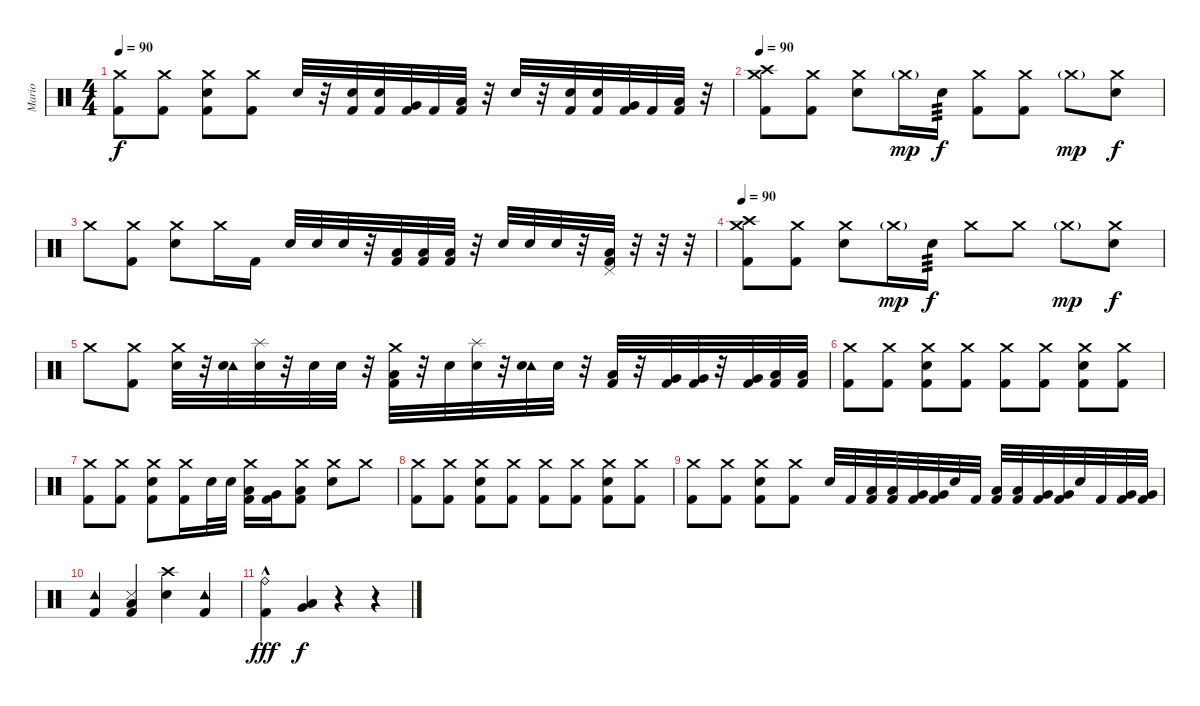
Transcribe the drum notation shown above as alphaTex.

\track ("Mario" "Mario") {instrument percussion}
\staff {score}
\articulation defaults
\ts (4 4)
\tempo 90
\clef neutral
\ks c
("Crash medium (hit)" "Kick (hit) 2").8{dy f} ("Crash medium (hit)" "Kick (hit) 2").8 ("Crash medium (hit)" "Electric Snare (hit)" "Kick (hit) 2").8 ("Crash medium (hit)" "Kick (hit) 2").8 "Electric Snare (hit)".32 r.32 ("Electric Snare (hit)" "Kick (hit) 2").32 ("Electric Snare (hit)" "Kick (hit) 2").32 ("Very Low Tom (hit)" "Kick (hit) 2").32 "Kick (hit) 2".32 ("Low Floor Tom (hit)" "Kick (hit) 2").32 r.32 "Electric Snare (hit)".32 r.32 ("Electric Snare (hit)" "Kick (hit) 2").32 ("Electric Snare (hit)" "Kick (hit) 2").32 ("Very Low Tom (hit)" "Kick (hit) 2").32 "Kick (hit) 2".32 ("Low Floor Tom (hit)" "Kick (hit) 2").32 r.32 |
\tempo 90
("Crash medium (hit)" "Crash high (hit)" "Kick (hit) 2").8 ("Crash medium (hit)" "Kick (hit) 2").8 ("Crash medium (hit)" "Electric Snare (hit)").8 "Crash medium (hit)"{g}.16{dy mp} "Electric Snare (hit)".16{tp 3 dy f} ("Crash medium (hit)" "Kick (hit) 2").8 ("Crash medium (hit)" "Kick (hit) 2").8 "Crash medium (hit)"{g}.8{dy mp} ("Crash medium (hit)" "Electric Snare (hit)").8{dy f} |
"Crash medium (hit)".8 ("Crash medium (hit)" "Kick (hit) 2").8 ("Crash medium (hit)" "Electric Snare (hit)").8 "Crash medium (hit)".16 "Kick (hit) 2".16 "Electric Snare (hit)".32 "Electric Snare (hit)".32 "Electric Snare (hit)".32 r.32 ("Low Floor Tom (hit)" "Kick (hit) 2").32 ("Low Floor Tom (hit)" "Kick (hit) 2").32 ("Low Floor Tom (hit)" "Kick (hit) 2").32 r.32 "Electric Snare (hit)".32 "Electric Snare (hit)".32 "Electric Snare (hit)".32 r.32 ("Pedal Hi-Hat (hit)" "Low Floor Tom (hit)" "Kick (hit) 2").32 r.32 r.32 r.32 |
\tempo 90
("Crash medium (hit)" "Crash high (hit)" "Kick (hit) 2").8 ("Crash medium (hit)" "Kick (hit) 2").8 ("Crash medium (hit)" "Electric Snare (hit)").8 "Crash medium (hit)"{g}.16{dy mp} "Electric Snare (hit)".16{tp 3 dy f} "Crash medium (hit)".8 "Crash medium (hit)".8 "Crash medium (hit)"{g}.8{dy mp} ("Crash medium (hit)" "Electric Snare (hit)").8{dy f} |
"Crash medium (hit)".8 ("Crash medium (hit)" "Kick (hit) 2").8 ("Crash medium (hit)" "Electric Snare (hit)").32 r.32 ("Tambourine (hit)" "Electric Snare (hit)").32 ("Splash (hit)" "Electric Snare (hit)").32 r.32 "Electric Snare (hit)".32 "Electric Snare (hit)".32 r.32 ("Crash medium (hit)" "Low Floor Tom (hit)" "Kick (hit) 2").32 r.32 "Electric Snare (hit)".32 ("Splash (hit)" "Electric Snare (hit)").32 r.32 ("Tambourine (hit)" "Electric Snare (hit)").32 "Electric Snare (hit)".32 r.32 ("Low Tom (hit)" "Kick (hit) 2").32 r.32 ("Very Low Tom (hit)" "Kick (hit) 2").32 ("Very Low Tom (hit)" "Kick (hit) 2").32 r.32 ("Very Low Tom (hit)" "Kick (hit) 2").32 ("Low Floor Tom (hit)" "Kick (hit) 2").32 ("Low Floor Tom (hit)" "Kick (hit) 2").32 |
("Crash medium (hit)" "Kick (hit) 2").8 ("Crash medium (hit)" "Kick (hit) 2").8 ("Crash medium (hit)" "Electric Snare (hit)" "Kick (hit) 2").8 ("Crash medium (hit)" "Kick (hit) 2").8 ("Crash medium (hit)" "Kick (hit) 2").8 ("Crash medium (hit)" "Kick (hit) 2").8 ("Crash medium (hit)" "Electric Snare (hit)" "Kick (hit) 2").8 ("Crash medium (hit)" "Kick (hit) 2").8 |
("Crash medium (hit)" "Kick (hit) 2").8 ("Crash medium (hit)" "Kick (hit) 2").8 ("Crash medium (hit)" "Electric Snare (hit)" "Kick (hit) 2").8 ("Crash medium (hit)" "Kick (hit) 2").16 "Electric Snare (hit)".32 "Electric Snare (hit)".32 ("Crash medium (hit)" "Low Tom (hit)" "Kick (hit) 2").16 ("Very Low Tom (hit)" "Kick (hit) 2").16 ("Crash medium (hit)" "Low Floor Tom (hit)" "Kick (hit) 2").8 ("Crash medium (hit)" "Electric Snare (hit)").8 "Crash medium (hit)".8 |
("Crash medium (hit)" "Kick (hit) 2").8 ("Crash medium (hit)" "Kick (hit) 2").8 ("Crash medium (hit)" "Electric Snare (hit)" "Kick (hit) 2").8 ("Crash medium (hit)" "Kick (hit) 2").8 ("Crash medium (hit)" "Kick (hit) 2").8 ("Crash medium (hit)" "Kick (hit) 2").8 ("Crash medium (hit)" "Electric Snare (hit)" "Kick (hit) 2").8 ("Crash medium (hit)" "Kick (hit) 2").8 |
("Crash medium (hit)" "Kick (hit) 2").8 ("Crash medium (hit)" "Kick (hit) 2").8 ("Crash medium (hit)" "Electric Snare (hit)" "Kick (hit) 2").8 ("Crash medium (hit)" "Kick (hit) 2").8 "Electric Snare (hit)".32 "Kick (hit) 2".32 ("Low Tom (hit)" "Kick (hit) 2").32 ("Low Tom (hit)" "Kick (hit) 2").32 ("Very Low Tom (hit)" "Kick (hit) 2").32 ("Very Low Tom (hit)" "Kick (hit) 2").32 "Electric Snare (hit)".32 "Kick (hit) 2".32 ("Low Tom (hit)" "Kick (hit) 2").32 ("Low Tom (hit)" "Kick (hit) 2").32 ("Very Low Tom (hit)" "Kick (hit) 2").32 ("Very Low Tom (hit)" "Kick (hit) 2").32 "Electric Snare (hit)".32 "Kick (hit) 2".32 ("Very Low Tom (hit)" "Kick (hit) 2").32 ("Very Low Tom (hit)" "Kick (hit) 2").32 |
("Tambourine (hit)" "Kick (hit) 2").4 ("Snare (side stick) 3" "Low Floor Tom (hit)" "Kick (hit) 2").4 ("Crash high (hit)" "Electric Snare (hit)").4 ("Tambourine (hit)" "Kick (hit) 2").4 |
("Ride (bell)"{hac} "Kick (hit) 2").4{dy fff} ("Very Low Tom (hit)" "Low Floor Tom (hit)").4{dy f} r.4 r.4
